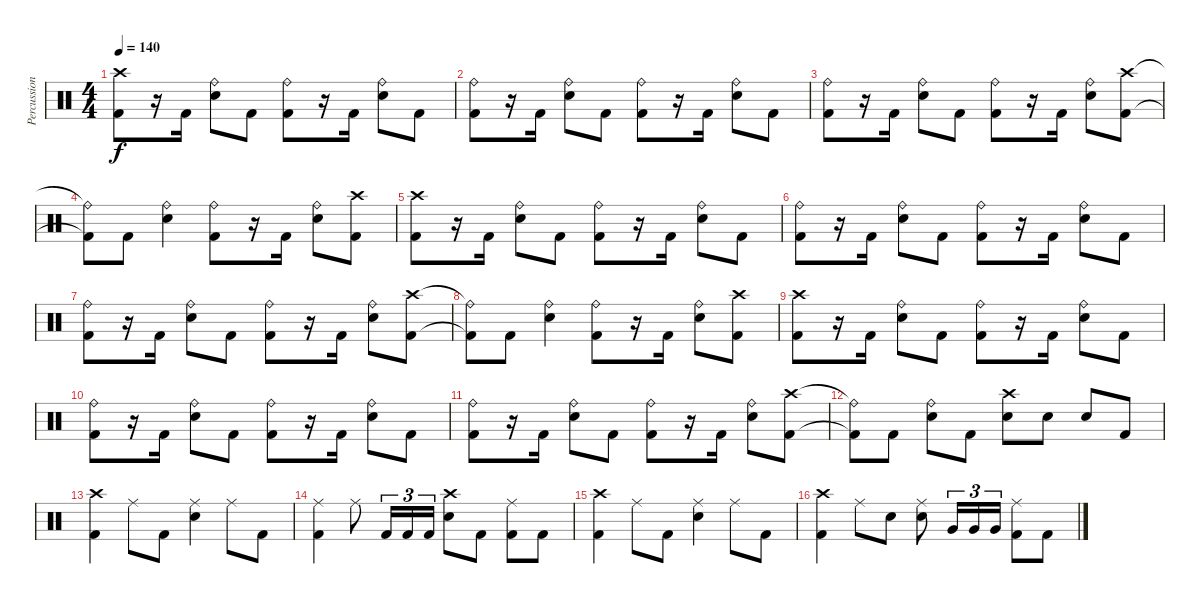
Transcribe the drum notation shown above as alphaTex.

\track ("Percussion" "Percussion") {instrument percussion}
\staff {score}
\articulation defaults
\ts (4 4)
\tempo 140
\clef neutral
\ks c
("Crash high (hit)" "Kick (hit) 2").8{dy f} r.16 "Kick (hit) 2".16 ("Ride (bell)" "Snare (hit) 2").8 "Kick (hit) 2".8 ("Ride (bell)" "Kick (hit) 2").8 r.16 "Kick (hit) 2".16 ("Ride (bell)" "Snare (hit) 2").8 "Kick (hit) 2".8 |
("Ride (bell)" "Kick (hit) 2").8 r.16 "Kick (hit) 2".16 ("Ride (bell)" "Snare (hit) 2").8 "Kick (hit) 2".8 ("Ride (bell)" "Kick (hit) 2").8 r.16 "Kick (hit) 2".16 ("Ride (bell)" "Snare (hit) 2").8 "Kick (hit) 2".8 |
("Ride (bell)" "Kick (hit) 2").8 r.16 "Kick (hit) 2".16 ("Ride (bell)" "Snare (hit) 2").8 "Kick (hit) 2".8 ("Ride (bell)" "Kick (hit) 2").8 r.16 "Kick (hit) 2".16 ("Ride (bell)" "Snare (hit) 2").8 ("Crash high (hit)" "Kick (hit) 2").8 |
("Ride (bell)"{t} "Kick (hit) 2"{t}).8 "Kick (hit) 2".8 ("Ride (bell)" "Snare (hit) 2").4 ("Ride (bell)" "Kick (hit) 2").8 r.16 "Kick (hit) 2".16 ("Ride (bell)" "Snare (hit) 2").8 ("Crash high (hit)" "Kick (hit) 2").8 |
("Crash high (hit)" "Kick (hit) 2").8 r.16 "Kick (hit) 2".16 ("Ride (bell)" "Snare (hit) 2").8 "Kick (hit) 2".8 ("Ride (bell)" "Kick (hit) 2").8 r.16 "Kick (hit) 2".16 ("Ride (bell)" "Snare (hit) 2").8 "Kick (hit) 2".8 |
("Ride (bell)" "Kick (hit) 2").8 r.16 "Kick (hit) 2".16 ("Ride (bell)" "Snare (hit) 2").8 "Kick (hit) 2".8 ("Ride (bell)" "Kick (hit) 2").8 r.16 "Kick (hit) 2".16 ("Ride (bell)" "Snare (hit) 2").8 "Kick (hit) 2".8 |
("Ride (bell)" "Kick (hit) 2").8 r.16 "Kick (hit) 2".16 ("Ride (bell)" "Snare (hit) 2").8 "Kick (hit) 2".8 ("Ride (bell)" "Kick (hit) 2").8 r.16 "Kick (hit) 2".16 ("Ride (bell)" "Snare (hit) 2").8 ("Crash high (hit)" "Kick (hit) 2").8 |
("Ride (bell)"{t} "Kick (hit) 2"{t}).8 "Kick (hit) 2".8 ("Ride (bell)" "Snare (hit) 2").4 ("Ride (bell)" "Kick (hit) 2").8 r.16 "Kick (hit) 2".16 ("Ride (bell)" "Snare (hit) 2").8 ("Crash high (hit)" "Kick (hit) 2").8 |
("Crash high (hit)" "Kick (hit) 2").8 r.16 "Kick (hit) 2".16 ("Ride (bell)" "Snare (hit) 2").8 "Kick (hit) 2".8 ("Ride (bell)" "Kick (hit) 2").8 r.16 "Kick (hit) 2".16 ("Ride (bell)" "Snare (hit) 2").8 "Kick (hit) 2".8 |
("Ride (bell)" "Kick (hit) 2").8 r.16 "Kick (hit) 2".16 ("Ride (bell)" "Snare (hit) 2").8 "Kick (hit) 2".8 ("Ride (bell)" "Kick (hit) 2").8 r.16 "Kick (hit) 2".16 ("Ride (bell)" "Snare (hit) 2").8 "Kick (hit) 2".8 |
("Ride (bell)" "Kick (hit) 2").8 r.16 "Kick (hit) 2".16 ("Ride (bell)" "Snare (hit) 2").8 "Kick (hit) 2".8 ("Ride (bell)" "Kick (hit) 2").8 r.16 "Kick (hit) 2".16 ("Ride (bell)" "Snare (hit) 2").8 ("Crash high (hit)" "Kick (hit) 2").8 |
("Ride (bell)"{t} "Kick (hit) 2"{t}).8 "Kick (hit) 2".8 ("Ride (bell)" "Snare (hit) 2").8 "Kick (hit) 2".8 ("Crash high (hit)" "Snare (hit) 2").8 "Snare (hit) 2".8 "Snare (hit) 2".8 "Kick (hit) 2".8 |
("Crash high (hit)" "Kick (hit) 2").4 "Ride (middle)".8 "Kick (hit) 2".8 ("Ride (middle)" "Snare (hit) 2").4 "Ride (middle)".8 "Kick (hit) 2".8 |
("Ride (middle)" "Kick (hit) 2").4 "Ride (middle)".8 "Kick (hit) 2".16{tu (3 2)} "Kick (hit) 2".16{tu (3 2)} "Kick (hit) 2".16{tu (3 2)} ("Crash high (hit)" "Snare (hit) 2").8 "Kick (hit) 2".8 ("Ride (middle)" "Kick (hit) 2").8 "Kick (hit) 2".8 |
("Crash high (hit)" "Kick (hit) 2").4 "Ride (middle)".8 "Kick (hit) 2".8 ("Ride (middle)" "Snare (hit) 2").4 "Ride (middle)".8 "Kick (hit) 2".8 |
("Crash high (hit)" "Kick (hit) 2").4 "Ride (middle)".8 "Snare (hit) 2".8 ("Ride (middle)" "Snare (hit) 2").8 "Very Low Tom (hit)".16{tu (3 2)} "Very Low Tom (hit)".16{tu (3 2)} "Very Low Tom (hit)".16{tu (3 2)} ("Ride (middle)" "Kick (hit) 2").8 "Kick (hit) 2".8
